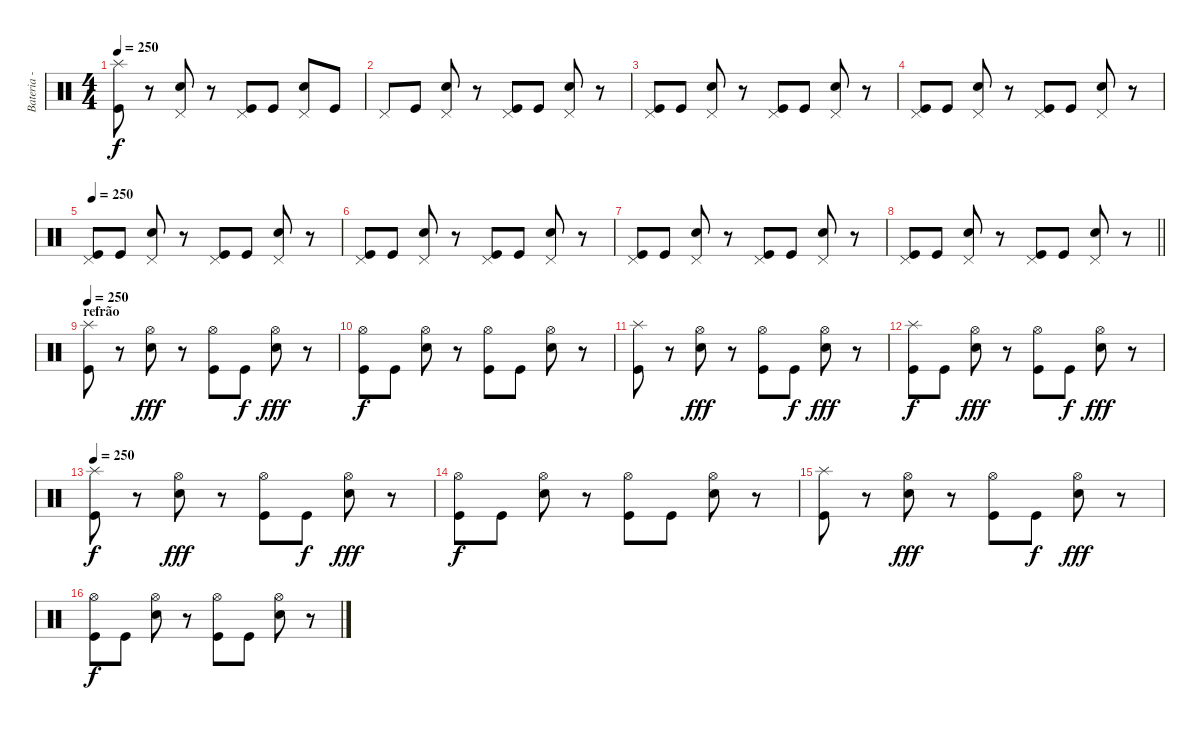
\track ("Bateria - Japinha" "Bateria - ") {instrument percussion}
\staff {score}
\articulation defaults
\ts (4 4)
\tempo 250
\clef neutral
\ks c
("Kick (hit)" "Splash (hit)").8{dy f} r.8 ("Snare (hit) 2" "Pedal Hi-Hat (hit)").8 r.8 ("Kick (hit)" "Pedal Hi-Hat (hit)").8 "Kick (hit)".8 ("Snare (hit) 2" "Pedal Hi-Hat (hit)").8 "Kick (hit)".8 |
"Pedal Hi-Hat (hit)".8 "Kick (hit)".8 ("Snare (hit) 2" "Pedal Hi-Hat (hit)").8 r.8 ("Kick (hit)" "Pedal Hi-Hat (hit)").8 "Kick (hit)".8 ("Snare (hit) 2" "Pedal Hi-Hat (hit)").8 r.8 |
("Kick (hit)" "Pedal Hi-Hat (hit)").8 "Kick (hit)".8 ("Snare (hit) 2" "Pedal Hi-Hat (hit)").8 r.8 ("Kick (hit)" "Pedal Hi-Hat (hit)").8 "Kick (hit)".8 ("Snare (hit) 2" "Pedal Hi-Hat (hit)").8 r.8 |
("Kick (hit)" "Pedal Hi-Hat (hit)").8 "Kick (hit)".8 ("Snare (hit) 2" "Pedal Hi-Hat (hit)").8 r.8 ("Kick (hit)" "Pedal Hi-Hat (hit)").8 "Kick (hit)".8 ("Snare (hit) 2" "Pedal Hi-Hat (hit)").8 r.8 |
\tempo 250
("Kick (hit)" "Pedal Hi-Hat (hit)").8 "Kick (hit)".8 ("Snare (hit) 2" "Pedal Hi-Hat (hit)").8 r.8 ("Kick (hit)" "Pedal Hi-Hat (hit)").8 "Kick (hit)".8 ("Snare (hit) 2" "Pedal Hi-Hat (hit)").8 r.8 |
("Kick (hit)" "Pedal Hi-Hat (hit)").8 "Kick (hit)".8 ("Snare (hit) 2" "Pedal Hi-Hat (hit)").8 r.8 ("Kick (hit)" "Pedal Hi-Hat (hit)").8 "Kick (hit)".8 ("Snare (hit) 2" "Pedal Hi-Hat (hit)").8 r.8 |
("Kick (hit)" "Pedal Hi-Hat (hit)").8 "Kick (hit)".8 ("Snare (hit) 2" "Pedal Hi-Hat (hit)").8 r.8 ("Kick (hit)" "Pedal Hi-Hat (hit)").8 "Kick (hit)".8 ("Snare (hit) 2" "Pedal Hi-Hat (hit)").8 r.8 |
\barLineRight lightlight
("Kick (hit)" "Pedal Hi-Hat (hit)").8 "Kick (hit)".8 ("Snare (hit) 2" "Pedal Hi-Hat (hit)").8 r.8 ("Kick (hit)" "Pedal Hi-Hat (hit)").8 "Kick (hit)".8 ("Snare (hit) 2" "Pedal Hi-Hat (hit)").8 r.8 |
\section ("" "refrão")
\tempo 250
("Kick (hit)" "Splash (hit)").8 r.8 ("Snare (hit) 2" "Hi-Hat (open)").8{dy fff} r.8 ("Kick (hit)" "Hi-Hat (open)").8 "Kick (hit)".8{dy f} ("Snare (hit) 2" "Hi-Hat (open)").8{dy fff} r.8 |
("Kick (hit)" "Hi-Hat (open)").8{dy f} "Kick (hit)".8 ("Snare (hit) 2" "Hi-Hat (open)").8 r.8 ("Kick (hit)" "Hi-Hat (open)").8 "Kick (hit)".8 ("Snare (hit) 2" "Hi-Hat (open)").8 r.8 |
("Kick (hit)" "Splash (hit)").8 r.8 ("Snare (hit) 2" "Hi-Hat (open)").8{dy fff} r.8 ("Kick (hit)" "Hi-Hat (open)").8 "Kick (hit)".8{dy f} ("Snare (hit) 2" "Hi-Hat (open)").8{dy fff} r.8 |
("Kick (hit)" "Splash (hit)").8{dy f} "Kick (hit)".8 ("Snare (hit) 2" "Hi-Hat (open)").8{dy fff} r.8 ("Kick (hit)" "Hi-Hat (open)").8 "Kick (hit)".8{dy f} ("Snare (hit) 2" "Hi-Hat (open)").8{dy fff} r.8 |
\tempo 250
("Kick (hit)" "Splash (hit)").8{dy f} r.8 ("Snare (hit) 2" "Hi-Hat (open)").8{dy fff} r.8 ("Kick (hit)" "Hi-Hat (open)").8 "Kick (hit)".8{dy f} ("Snare (hit) 2" "Hi-Hat (open)").8{dy fff} r.8 |
("Kick (hit)" "Hi-Hat (open)").8{dy f} "Kick (hit)".8 ("Snare (hit) 2" "Hi-Hat (open)").8 r.8 ("Kick (hit)" "Hi-Hat (open)").8 "Kick (hit)".8 ("Snare (hit) 2" "Hi-Hat (open)").8 r.8 |
("Kick (hit)" "Splash (hit)").8 r.8 ("Snare (hit) 2" "Hi-Hat (open)").8{dy fff} r.8 ("Kick (hit)" "Hi-Hat (open)").8 "Kick (hit)".8{dy f} ("Snare (hit) 2" "Hi-Hat (open)").8{dy fff} r.8 |
("Kick (hit)" "Hi-Hat (open)").8{dy f} "Kick (hit)".8 ("Snare (hit) 2" "Hi-Hat (open)").8 r.8 ("Kick (hit)" "Hi-Hat (open)").8 "Kick (hit)".8 ("Snare (hit) 2" "Hi-Hat (open)").8 r.8
